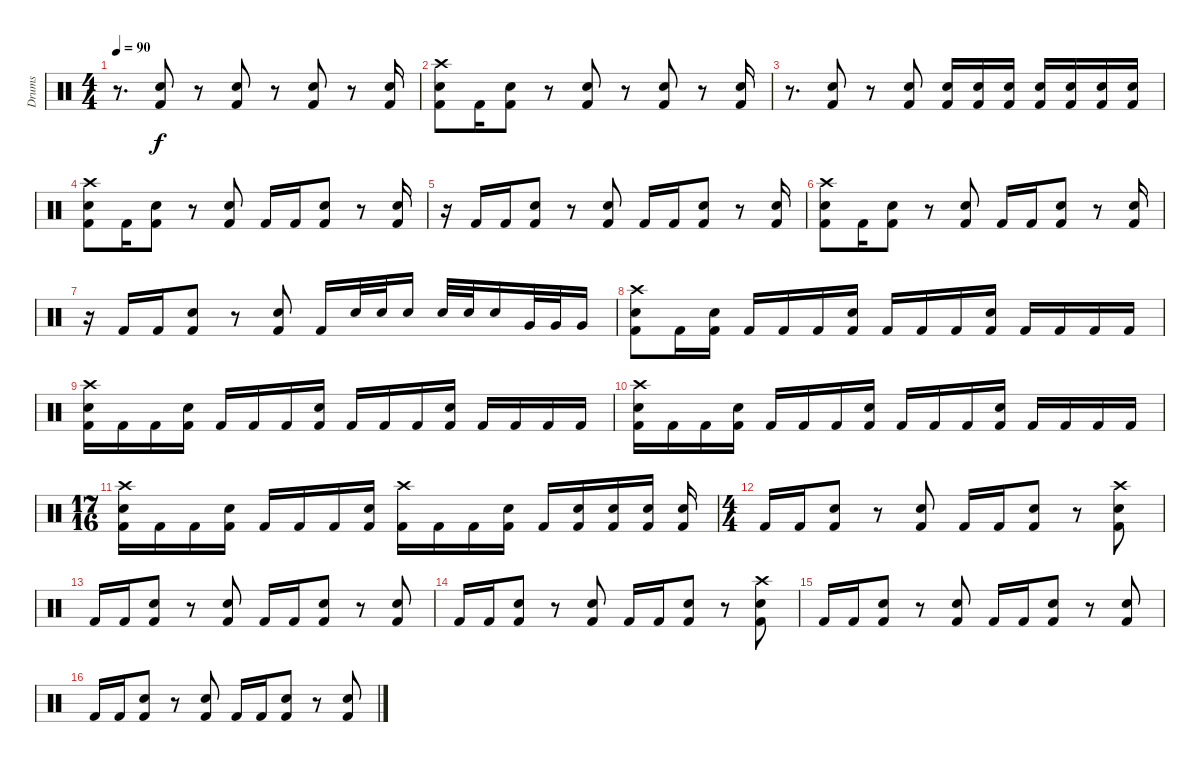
\track ("Drums" "Drums") {instrument percussion}
\staff {score}
\articulation defaults
\ts (4 4)
\tempo 90
\clef neutral
\ks c
r.8{d dy f} ("Electric Snare (hit)" "Kick (hit) 2").8 r.8 ("Electric Snare (hit)" "Kick (hit) 2").8 r.8 ("Electric Snare (hit)" "Kick (hit) 2").8 r.8 ("Electric Snare (hit)" "Kick (hit) 2").16 |
("Crash high (hit)" "Electric Snare (hit)" "Kick (hit) 2").8 "Kick (hit) 2".16 ("Electric Snare (hit)" "Kick (hit) 2").8 r.8 ("Electric Snare (hit)" "Kick (hit) 2").8 r.8 ("Electric Snare (hit)" "Kick (hit) 2").8 r.8 ("Electric Snare (hit)" "Kick (hit) 2").16 |
r.8{d} ("Electric Snare (hit)" "Kick (hit) 2").8 r.8 ("Electric Snare (hit)" "Kick (hit) 2").8 ("Electric Snare (hit)" "Kick (hit) 2").16 ("Electric Snare (hit)" "Kick (hit) 2").16 ("Electric Snare (hit)" "Kick (hit) 2").16 ("Electric Snare (hit)" "Kick (hit) 2").16 ("Electric Snare (hit)" "Kick (hit) 2").16 ("Electric Snare (hit)" "Kick (hit) 2").16 ("Electric Snare (hit)" "Kick (hit) 2").16 |
("Crash high (hit)" "Electric Snare (hit)" "Kick (hit) 2").8 "Kick (hit) 2".16 ("Electric Snare (hit)" "Kick (hit) 2").8 r.8 ("Electric Snare (hit)" "Kick (hit) 2").8 "Kick (hit) 2".16 "Kick (hit) 2".16 ("Electric Snare (hit)" "Kick (hit) 2").8 r.8 ("Electric Snare (hit)" "Kick (hit) 2").16 |
r.16 "Kick (hit) 2".16 "Kick (hit) 2".16 ("Electric Snare (hit)" "Kick (hit) 2").8 r.8 ("Electric Snare (hit)" "Kick (hit) 2").8 "Kick (hit) 2".16 "Kick (hit) 2".16 ("Electric Snare (hit)" "Kick (hit) 2").8 r.8 ("Electric Snare (hit)" "Kick (hit) 2").16 |
("Crash high (hit)" "Electric Snare (hit)" "Kick (hit) 2").8 "Kick (hit) 2".16 ("Electric Snare (hit)" "Kick (hit) 2").8 r.8 ("Electric Snare (hit)" "Kick (hit) 2").8 "Kick (hit) 2".16 "Kick (hit) 2".16 ("Electric Snare (hit)" "Kick (hit) 2").8 r.8 ("Electric Snare (hit)" "Kick (hit) 2").16 |
r.16 "Kick (hit) 2".16 "Kick (hit) 2".16 ("Electric Snare (hit)" "Kick (hit) 2").8 r.8 ("Electric Snare (hit)" "Kick (hit) 2").8 "Kick (hit) 2".16 "Electric Snare (hit)".32 "Electric Snare (hit)".32 "Electric Snare (hit)".16 "Snare (hit) 2".32 "Snare (hit) 2".32 "Snare (hit) 2".16 "Very Low Tom (hit)".32 "Very Low Tom (hit)".32 "Very Low Tom (hit)".16 |
("Crash high (hit)" "Electric Snare (hit)" "Kick (hit) 2").8 "Kick (hit) 2".16 ("Electric Snare (hit)" "Kick (hit) 2").16 "Kick (hit) 2".16 "Kick (hit) 2".16 "Kick (hit) 2".16 ("Electric Snare (hit)" "Kick (hit) 2").16 "Kick (hit) 2".16 "Kick (hit) 2".16 "Kick (hit) 2".16 ("Electric Snare (hit)" "Kick (hit) 2").16 "Kick (hit) 2".16 "Kick (hit) 2".16 "Kick (hit) 2".16 "Kick (hit) 2".16 |
("Crash high (hit)" "Electric Snare (hit)" "Kick (hit) 2").16 "Kick (hit) 2".16 "Kick (hit) 2".16 ("Electric Snare (hit)" "Kick (hit) 2").16 "Kick (hit) 2".16 "Kick (hit) 2".16 "Kick (hit) 2".16 ("Electric Snare (hit)" "Kick (hit) 2").16 "Kick (hit) 2".16 "Kick (hit) 2".16 "Kick (hit) 2".16 ("Electric Snare (hit)" "Kick (hit) 2").16 "Kick (hit) 2".16 "Kick (hit) 2".16 "Kick (hit) 2".16 "Kick (hit) 2".16 |
("Crash high (hit)" "Electric Snare (hit)" "Kick (hit) 2").16 "Kick (hit) 2".16 "Kick (hit) 2".16 ("Electric Snare (hit)" "Kick (hit) 2").16 "Kick (hit) 2".16 "Kick (hit) 2".16 "Kick (hit) 2".16 ("Electric Snare (hit)" "Kick (hit) 2").16 "Kick (hit) 2".16 "Kick (hit) 2".16 "Kick (hit) 2".16 ("Electric Snare (hit)" "Kick (hit) 2").16 "Kick (hit) 2".16 "Kick (hit) 2".16 "Kick (hit) 2".16 "Kick (hit) 2".16 |
\ts (17 16)
("Crash high (hit)" "Electric Snare (hit)" "Kick (hit) 2").16 "Kick (hit) 2".16 "Kick (hit) 2".16 ("Electric Snare (hit)" "Kick (hit) 2").16 "Kick (hit) 2".16 "Kick (hit) 2".16 "Kick (hit) 2".16 ("Electric Snare (hit)" "Kick (hit) 2").16 ("Crash high (hit)" "Kick (hit) 2").16 "Kick (hit) 2".16 "Kick (hit) 2".16 ("Electric Snare (hit)" "Kick (hit) 2").16 "Kick (hit) 2".16 ("Electric Snare (hit)" "Kick (hit) 2").16 ("Electric Snare (hit)" "Kick (hit) 2").16 ("Electric Snare (hit)" "Kick (hit) 2").16 ("Electric Snare (hit)" "Kick (hit) 2").16 |
\ts (4 4)
"Kick (hit) 2".16 "Kick (hit) 2".16 ("Electric Snare (hit)" "Kick (hit) 2").8 r.8 ("Electric Snare (hit)" "Kick (hit) 2").8 "Kick (hit) 2".16 "Kick (hit) 2".16 ("Electric Snare (hit)" "Kick (hit) 2").8 r.8 ("Crash high (hit)" "Electric Snare (hit)" "Kick (hit) 2").8 |
"Kick (hit) 2".16 "Kick (hit) 2".16 ("Electric Snare (hit)" "Kick (hit) 2").8 r.8 ("Electric Snare (hit)" "Kick (hit) 2").8 "Kick (hit) 2".16 "Kick (hit) 2".16 ("Electric Snare (hit)" "Kick (hit) 2").8 r.8 ("Electric Snare (hit)" "Kick (hit) 2").8 |
"Kick (hit) 2".16 "Kick (hit) 2".16 ("Electric Snare (hit)" "Kick (hit) 2").8 r.8 ("Electric Snare (hit)" "Kick (hit) 2").8 "Kick (hit) 2".16 "Kick (hit) 2".16 ("Electric Snare (hit)" "Kick (hit) 2").8 r.8 ("Crash high (hit)" "Electric Snare (hit)" "Kick (hit) 2").8 |
"Kick (hit) 2".16 "Kick (hit) 2".16 ("Electric Snare (hit)" "Kick (hit) 2").8 r.8 ("Electric Snare (hit)" "Kick (hit) 2").8 "Kick (hit) 2".16 "Kick (hit) 2".16 ("Electric Snare (hit)" "Kick (hit) 2").8 r.8 ("Electric Snare (hit)" "Kick (hit) 2").8 |
"Kick (hit) 2".16 "Kick (hit) 2".16 ("Electric Snare (hit)" "Kick (hit) 2").8 r.8 ("Electric Snare (hit)" "Kick (hit) 2").8 "Kick (hit) 2".16 "Kick (hit) 2".16 ("Electric Snare (hit)" "Kick (hit) 2").8 r.8 ("Electric Snare (hit)" "Kick (hit) 2").8
